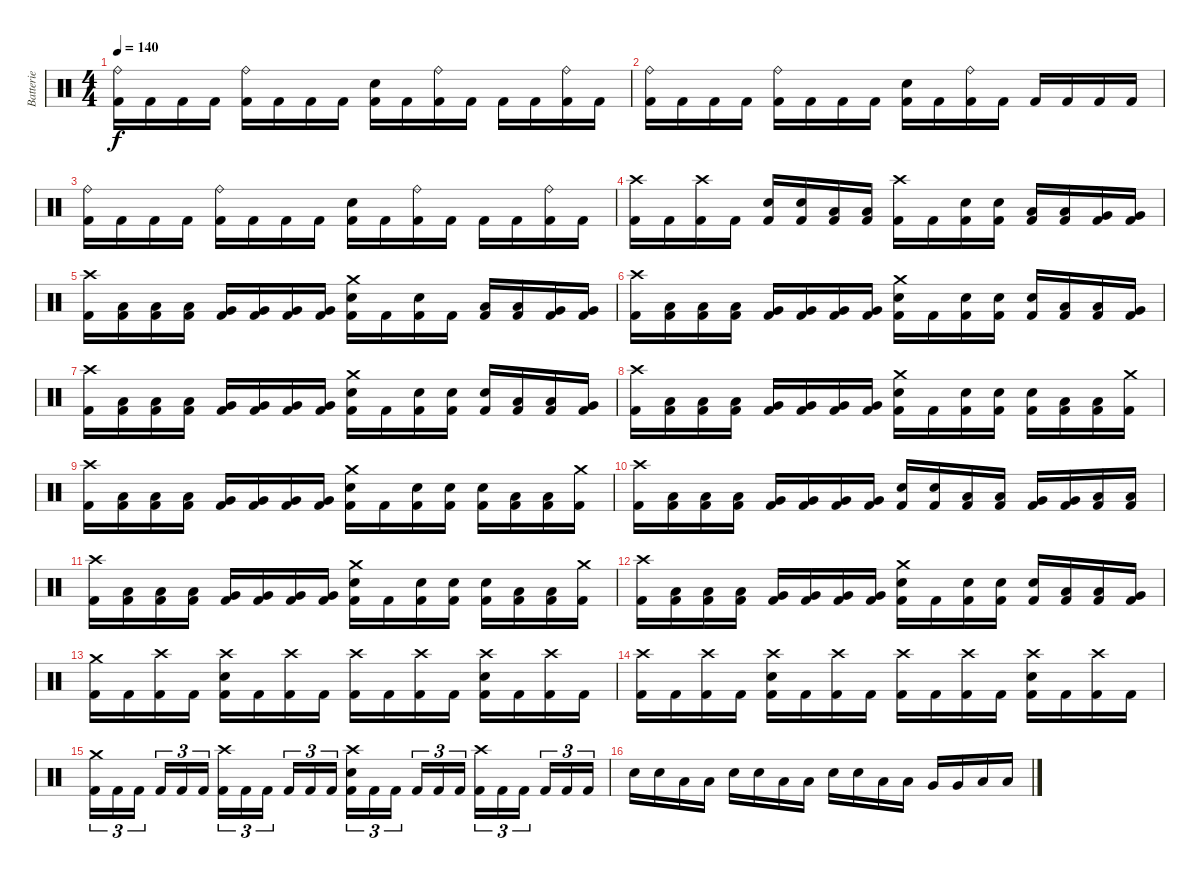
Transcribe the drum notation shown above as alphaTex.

\track ("Batterie" "Batterie") {instrument percussion}
\staff {score}
\articulation defaults
\ts (4 4)
\tempo 140
\clef neutral
\ks c
("Ride (bell)" "Kick (hit) 2").16{dy f} "Kick (hit) 2".16 "Kick (hit) 2".16 "Kick (hit) 2".16 ("Ride (bell)" "Kick (hit) 2").16 "Kick (hit) 2".16 "Kick (hit) 2".16 "Kick (hit) 2".16 ("Electric Snare (hit)" "Kick (hit) 2").16 "Kick (hit) 2".16 ("Ride (bell)" "Kick (hit) 2").16 "Kick (hit) 2".16 "Kick (hit) 2".16 "Kick (hit) 2".16 ("Ride (bell)" "Kick (hit) 2").16 "Kick (hit) 2".16 |
("Ride (bell)" "Kick (hit) 2").16 "Kick (hit) 2".16 "Kick (hit) 2".16 "Kick (hit) 2".16 ("Ride (bell)" "Kick (hit) 2").16 "Kick (hit) 2".16 "Kick (hit) 2".16 "Kick (hit) 2".16 ("Electric Snare (hit)" "Kick (hit) 2").16 "Kick (hit) 2".16 ("Ride (bell)" "Kick (hit) 2").16 "Kick (hit) 2".16 "Kick (hit) 2".16 "Kick (hit) 2".16 "Kick (hit) 2".16 "Kick (hit) 2".16 |
("Ride (bell)" "Kick (hit) 2").16 "Kick (hit) 2".16 "Kick (hit) 2".16 "Kick (hit) 2".16 ("Ride (bell)" "Kick (hit) 2").16 "Kick (hit) 2".16 "Kick (hit) 2".16 "Kick (hit) 2".16 ("Electric Snare (hit)" "Kick (hit) 2").16 "Kick (hit) 2".16 ("Ride (bell)" "Kick (hit) 2").16 "Kick (hit) 2".16 "Kick (hit) 2".16 "Kick (hit) 2".16 ("Ride (bell)" "Kick (hit) 2").16 "Kick (hit) 2".16 |
("Crash high (hit)" "Kick (hit) 2").16 "Kick (hit) 2".16 ("Crash high (hit)" "Kick (hit) 2").16 "Kick (hit) 2".16 ("Electric Snare (hit)" "Kick (hit) 2").16 ("Electric Snare (hit)" "Kick (hit) 2").16 ("Low Tom (hit)" "Kick (hit) 2").16 ("Low Tom (hit)" "Kick (hit) 2").16 ("Crash high (hit)" "Kick (hit) 2").16 "Kick (hit) 2".16 ("Electric Snare (hit)" "Kick (hit) 2").16 ("Electric Snare (hit)" "Kick (hit) 2").16 ("Low Tom (hit)" "Kick (hit) 2").16 ("Low Tom (hit)" "Kick (hit) 2").16 ("Very Low Tom (hit)" "Kick (hit) 2").16 ("Very Low Tom (hit)" "Kick (hit) 2").16 |
("Crash high (hit)" "Kick (hit) 2").16 ("Low Tom (hit)" "Kick (hit) 2").16 ("Low Tom (hit)" "Kick (hit) 2").16 ("Low Tom (hit)" "Kick (hit) 2").16 ("Very Low Tom (hit)" "Kick (hit) 2").16 ("Very Low Tom (hit)" "Kick (hit) 2").16 ("Very Low Tom (hit)" "Kick (hit) 2").16 ("Very Low Tom (hit)" "Kick (hit) 2").16 ("Crash medium (hit)" "Electric Snare (hit)" "Kick (hit) 2").16 "Kick (hit) 2".16 ("Electric Snare (hit)" "Kick (hit) 2").16 "Kick (hit) 2".16 ("Low Tom (hit)" "Kick (hit) 2").16 ("Low Tom (hit)" "Kick (hit) 2").16 ("Very Low Tom (hit)" "Kick (hit) 2").16 ("Very Low Tom (hit)" "Kick (hit) 2").16 |
("Crash high (hit)" "Kick (hit) 2").16 ("Low Tom (hit)" "Kick (hit) 2").16 ("Low Tom (hit)" "Kick (hit) 2").16 ("Low Tom (hit)" "Kick (hit) 2").16 ("Very Low Tom (hit)" "Kick (hit) 2").16 ("Very Low Tom (hit)" "Kick (hit) 2").16 ("Very Low Tom (hit)" "Kick (hit) 2").16 ("Very Low Tom (hit)" "Kick (hit) 2").16 ("Crash medium (hit)" "Electric Snare (hit)" "Kick (hit) 2").16 "Kick (hit) 2".16 ("Electric Snare (hit)" "Kick (hit) 2").16 ("Electric Snare (hit)" "Kick (hit) 2").16 ("Electric Snare (hit)" "Kick (hit) 2").16 ("Low Tom (hit)" "Kick (hit) 2").16 ("Low Tom (hit)" "Kick (hit) 2").16 ("Very Low Tom (hit)" "Kick (hit) 2").16 |
("Crash high (hit)" "Kick (hit) 2").16 ("Low Tom (hit)" "Kick (hit) 2").16 ("Low Tom (hit)" "Kick (hit) 2").16 ("Low Tom (hit)" "Kick (hit) 2").16 ("Very Low Tom (hit)" "Kick (hit) 2").16 ("Very Low Tom (hit)" "Kick (hit) 2").16 ("Very Low Tom (hit)" "Kick (hit) 2").16 ("Very Low Tom (hit)" "Kick (hit) 2").16 ("Crash medium (hit)" "Electric Snare (hit)" "Kick (hit) 2").16 "Kick (hit) 2".16 ("Electric Snare (hit)" "Kick (hit) 2").16 ("Electric Snare (hit)" "Kick (hit) 2").16 ("Electric Snare (hit)" "Kick (hit) 2").16 ("Low Tom (hit)" "Kick (hit) 2").16 ("Low Tom (hit)" "Kick (hit) 2").16 ("Very Low Tom (hit)" "Kick (hit) 2").16 |
("Crash high (hit)" "Kick (hit) 2").16 ("Low Tom (hit)" "Kick (hit) 2").16 ("Low Tom (hit)" "Kick (hit) 2").16 ("Low Tom (hit)" "Kick (hit) 2").16 ("Very Low Tom (hit)" "Kick (hit) 2").16 ("Very Low Tom (hit)" "Kick (hit) 2").16 ("Very Low Tom (hit)" "Kick (hit) 2").16 ("Very Low Tom (hit)" "Kick (hit) 2").16 ("Crash medium (hit)" "Electric Snare (hit)" "Kick (hit) 2").16 "Kick (hit) 2".16 ("Electric Snare (hit)" "Kick (hit) 2").16 ("Electric Snare (hit)" "Kick (hit) 2").16 ("Electric Snare (hit)" "Kick (hit) 2").16 ("Low Tom (hit)" "Kick (hit) 2").16 ("Low Tom (hit)" "Kick (hit) 2").16 ("Crash medium (hit)" "Kick (hit) 2").16 |
("Crash high (hit)" "Kick (hit) 2").16 ("Low Tom (hit)" "Kick (hit) 2").16 ("Low Tom (hit)" "Kick (hit) 2").16 ("Low Tom (hit)" "Kick (hit) 2").16 ("Very Low Tom (hit)" "Kick (hit) 2").16 ("Very Low Tom (hit)" "Kick (hit) 2").16 ("Very Low Tom (hit)" "Kick (hit) 2").16 ("Very Low Tom (hit)" "Kick (hit) 2").16 ("Crash medium (hit)" "Electric Snare (hit)" "Kick (hit) 2").16 "Kick (hit) 2".16 ("Electric Snare (hit)" "Kick (hit) 2").16 ("Electric Snare (hit)" "Kick (hit) 2").16 ("Electric Snare (hit)" "Kick (hit) 2").16 ("Low Tom (hit)" "Kick (hit) 2").16 ("Low Tom (hit)" "Kick (hit) 2").16 ("Crash medium (hit)" "Kick (hit) 2").16 |
("Crash high (hit)" "Kick (hit) 2").16 ("Low Tom (hit)" "Kick (hit) 2").16 ("Low Tom (hit)" "Kick (hit) 2").16 ("Low Tom (hit)" "Kick (hit) 2").16 ("Very Low Tom (hit)" "Kick (hit) 2").16 ("Very Low Tom (hit)" "Kick (hit) 2").16 ("Very Low Tom (hit)" "Kick (hit) 2").16 ("Very Low Tom (hit)" "Kick (hit) 2").16 ("Electric Snare (hit)" "Kick (hit) 2").16 ("Electric Snare (hit)" "Kick (hit) 2").16 ("Low Tom (hit)" "Kick (hit) 2").16 ("Low Tom (hit)" "Kick (hit) 2").16 ("Very Low Tom (hit)" "Kick (hit) 2").16 ("Very Low Tom (hit)" "Kick (hit) 2").16 ("Low Floor Tom (hit)" "Kick (hit) 2").16 ("Low Floor Tom (hit)" "Kick (hit) 2").16 |
("Crash high (hit)" "Kick (hit) 2").16 ("Low Tom (hit)" "Kick (hit) 2").16 ("Low Tom (hit)" "Kick (hit) 2").16 ("Low Tom (hit)" "Kick (hit) 2").16 ("Very Low Tom (hit)" "Kick (hit) 2").16 ("Very Low Tom (hit)" "Kick (hit) 2").16 ("Very Low Tom (hit)" "Kick (hit) 2").16 ("Very Low Tom (hit)" "Kick (hit) 2").16 ("Crash medium (hit)" "Electric Snare (hit)" "Kick (hit) 2").16 "Kick (hit) 2".16 ("Electric Snare (hit)" "Kick (hit) 2").16 ("Electric Snare (hit)" "Kick (hit) 2").16 ("Electric Snare (hit)" "Kick (hit) 2").16 ("Low Tom (hit)" "Kick (hit) 2").16 ("Low Tom (hit)" "Kick (hit) 2").16 ("Crash medium (hit)" "Kick (hit) 2").16 |
("Crash high (hit)" "Kick (hit) 2").16 ("Low Tom (hit)" "Kick (hit) 2").16 ("Low Tom (hit)" "Kick (hit) 2").16 ("Low Tom (hit)" "Kick (hit) 2").16 ("Very Low Tom (hit)" "Kick (hit) 2").16 ("Very Low Tom (hit)" "Kick (hit) 2").16 ("Very Low Tom (hit)" "Kick (hit) 2").16 ("Very Low Tom (hit)" "Kick (hit) 2").16 ("Crash medium (hit)" "Electric Snare (hit)" "Kick (hit) 2").16 "Kick (hit) 2".16 ("Electric Snare (hit)" "Kick (hit) 2").16 ("Electric Snare (hit)" "Kick (hit) 2").16 ("Electric Snare (hit)" "Kick (hit) 2").16 ("Low Tom (hit)" "Kick (hit) 2").16 ("Low Tom (hit)" "Kick (hit) 2").16 ("Very Low Tom (hit)" "Kick (hit) 2").16 |
("Crash medium (hit)" "Kick (hit) 2").16 "Kick (hit) 2".16 ("Crash high (hit)" "Kick (hit) 2").16 "Kick (hit) 2".16 ("Crash high (hit)" "Electric Snare (hit)" "Kick (hit) 2").16 "Kick (hit) 2".16 ("Crash high (hit)" "Kick (hit) 2").16 "Kick (hit) 2".16 ("Crash high (hit)" "Kick (hit) 2").16 "Kick (hit) 2".16 ("Crash high (hit)" "Kick (hit) 2").16 "Kick (hit) 2".16 ("Crash high (hit)" "Electric Snare (hit)" "Kick (hit) 2").16 "Kick (hit) 2".16 ("Crash high (hit)" "Kick (hit) 2").16 "Kick (hit) 2".16 |
("Crash high (hit)" "Kick (hit) 2").16 "Kick (hit) 2".16 ("Crash high (hit)" "Kick (hit) 2").16 "Kick (hit) 2".16 ("Crash high (hit)" "Electric Snare (hit)" "Kick (hit) 2").16 "Kick (hit) 2".16 ("Crash high (hit)" "Kick (hit) 2").16 "Kick (hit) 2".16 ("Crash high (hit)" "Kick (hit) 2").16 "Kick (hit) 2".16 ("Crash high (hit)" "Kick (hit) 2").16 "Kick (hit) 2".16 ("Crash high (hit)" "Electric Snare (hit)" "Kick (hit) 2").16 "Kick (hit) 2".16 ("Crash high (hit)" "Kick (hit) 2").16 "Kick (hit) 2".16 |
("Crash medium (hit)" "Kick (hit) 2").16{tu (3 2)} "Kick (hit) 2".16{tu (3 2)} "Kick (hit) 2".16{tu (3 2) beam splitsecondary} "Kick (hit) 2".16{tu (3 2)} "Kick (hit) 2".16{tu (3 2)} "Kick (hit) 2".16{tu (3 2)} ("Crash high (hit)" "Kick (hit) 2").16{tu (3 2)} "Kick (hit) 2".16{tu (3 2)} "Kick (hit) 2".16{tu (3 2) beam splitsecondary} "Kick (hit) 2".16{tu (3 2)} "Kick (hit) 2".16{tu (3 2)} "Kick (hit) 2".16{tu (3 2)} ("Crash high (hit)" "Electric Snare (hit)" "Kick (hit) 2").16{tu (3 2)} "Kick (hit) 2".16{tu (3 2)} "Kick (hit) 2".16{tu (3 2) beam splitsecondary} "Kick (hit) 2".16{tu (3 2)} "Kick (hit) 2".16{tu (3 2)} "Kick (hit) 2".16{tu (3 2)} ("Crash high (hit)" "Kick (hit) 2").16{tu (3 2)} "Kick (hit) 2".16{tu (3 2)} "Kick (hit) 2".16{tu (3 2) beam splitsecondary} "Kick (hit) 2".16{tu (3 2)} "Kick (hit) 2".16{tu (3 2)} "Kick (hit) 2".16{tu (3 2)} |
"Electric Snare (hit)".16 "Electric Snare (hit)".16 "Low Tom (hit)".16 "Low Tom (hit)".16 "Electric Snare (hit)".16 "Electric Snare (hit)".16 "Low Tom (hit)".16 "Low Tom (hit)".16 "Electric Snare (hit)".16 "Electric Snare (hit)".16 "Low Tom (hit)".16 "Low Tom (hit)".16 "Very Low Tom (hit)".16 "Very Low Tom (hit)".16 "Low Floor Tom (hit)".16 "Low Floor Tom (hit)".16
